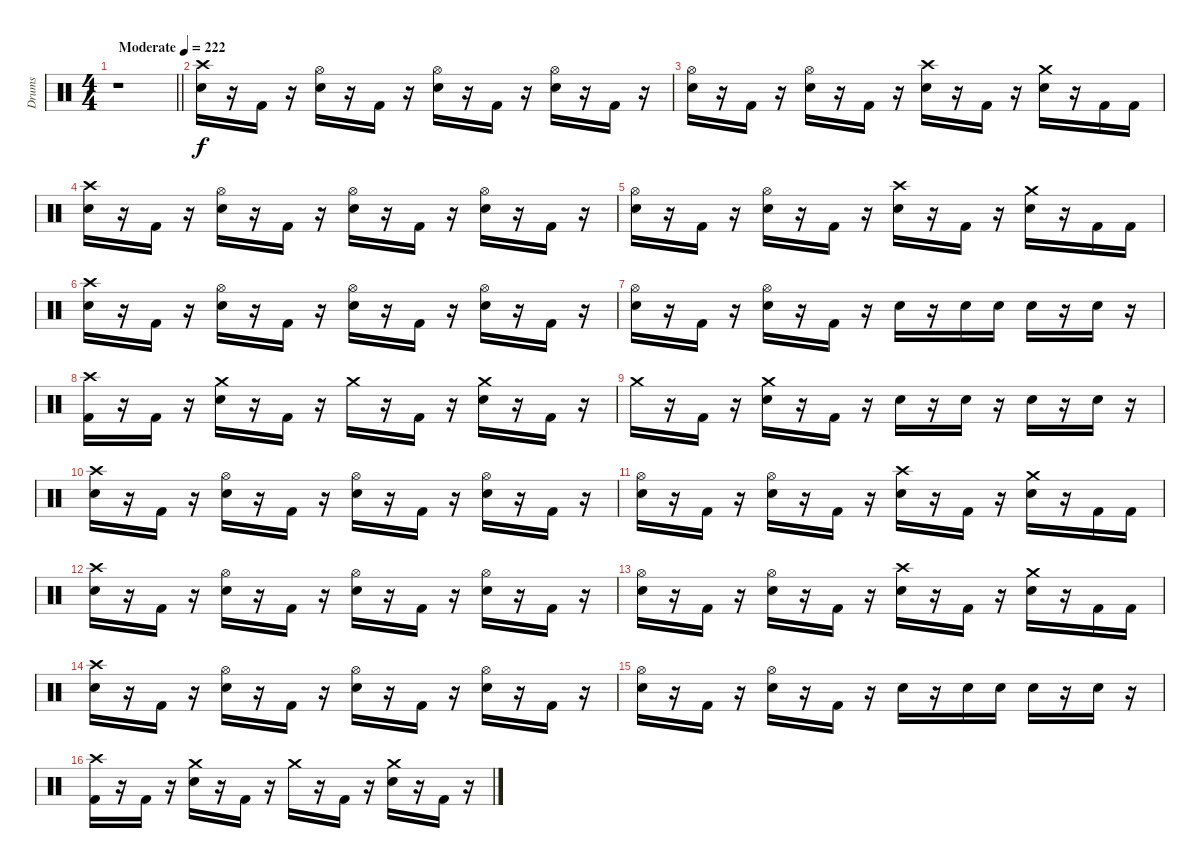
\track ("Drums" "Drums") {instrument percussion}
\staff {score}
\articulation defaults
\ts (4 4)
\tempo (222 "Moderate")
\clef neutral
\barLineRight lightlight
\ks c
r.1{dy f} |
\section ("" " ")
("Snare (hit) 2" "Crash high (hit)").16 r.16 "Kick (hit) 2".16 r.16 ("Snare (hit) 2" "Hi-Hat (open)").16 r.16 "Kick (hit) 2".16 r.16 ("Snare (hit) 2" "Hi-Hat (open)").16 r.16 "Kick (hit) 2".16 r.16 ("Snare (hit) 2" "Hi-Hat (open)").16 r.16 "Kick (hit) 2".16 r.16 |
("Snare (hit) 2" "Hi-Hat (open)").16 r.16 "Kick (hit) 2".16 r.16 ("Snare (hit) 2" "Hi-Hat (open)").16 r.16 "Kick (hit) 2".16 r.16 ("Snare (hit) 2" "Crash high (hit)").16 r.16 "Kick (hit) 2".16 r.16 ("Snare (hit) 2" "Crash medium (hit)").16 r.16 "Kick (hit) 2".16 "Kick (hit) 2".16 |
("Snare (hit) 2" "Crash high (hit)").16 r.16 "Kick (hit) 2".16 r.16 ("Snare (hit) 2" "Hi-Hat (open)").16 r.16 "Kick (hit) 2".16 r.16 ("Snare (hit) 2" "Hi-Hat (open)").16 r.16 "Kick (hit) 2".16 r.16 ("Snare (hit) 2" "Hi-Hat (open)").16 r.16 "Kick (hit) 2".16 r.16 |
("Snare (hit) 2" "Hi-Hat (open)").16 r.16 "Kick (hit) 2".16 r.16 ("Snare (hit) 2" "Hi-Hat (open)").16 r.16 "Kick (hit) 2".16 r.16 ("Snare (hit) 2" "Crash high (hit)").16 r.16 "Kick (hit) 2".16 r.16 ("Snare (hit) 2" "Crash medium (hit)").16 r.16 "Kick (hit) 2".16 "Kick (hit) 2".16 |
("Snare (hit) 2" "Crash high (hit)").16 r.16 "Kick (hit) 2".16 r.16 ("Snare (hit) 2" "Hi-Hat (open)").16 r.16 "Kick (hit) 2".16 r.16 ("Snare (hit) 2" "Hi-Hat (open)").16 r.16 "Kick (hit) 2".16 r.16 ("Snare (hit) 2" "Hi-Hat (open)").16 r.16 "Kick (hit) 2".16 r.16 |
("Snare (hit) 2" "Hi-Hat (open)").16 r.16 "Kick (hit) 2".16 r.16 ("Snare (hit) 2" "Hi-Hat (open)").16 r.16 "Kick (hit) 2".16 r.16 "Snare (hit) 2".16 r.16 "Snare (hit) 2".16 "Snare (hit) 2".16 "Snare (hit) 2".16 r.16 "Snare (hit) 2".16 r.16 |
("Kick (hit) 2" "Crash high (hit)").16 r.16 "Kick (hit) 2".16 r.16 ("Snare (hit) 2" "Crash medium (hit)").16 r.16 "Kick (hit) 2".16 r.16 "Crash medium (hit)".16 r.16 "Kick (hit) 2".16 r.16 ("Snare (hit) 2" "Crash medium (hit)").16 r.16 "Kick (hit) 2".16 r.16 |
"Crash medium (hit)".16 r.16 "Kick (hit) 2".16 r.16 ("Snare (hit) 2" "Crash medium (hit)").16 r.16 "Kick (hit) 2".16 r.16 "Snare (hit) 2".16 r.16 "Snare (hit) 2".16 r.16 "Snare (hit) 2".16 r.16 "Snare (hit) 2".16 r.16 |
("Snare (hit) 2" "Crash high (hit)").16 r.16 "Kick (hit) 2".16 r.16 ("Snare (hit) 2" "Hi-Hat (open)").16 r.16 "Kick (hit) 2".16 r.16 ("Snare (hit) 2" "Hi-Hat (open)").16 r.16 "Kick (hit) 2".16 r.16 ("Snare (hit) 2" "Hi-Hat (open)").16 r.16 "Kick (hit) 2".16 r.16 |
("Snare (hit) 2" "Hi-Hat (open)").16 r.16 "Kick (hit) 2".16 r.16 ("Snare (hit) 2" "Hi-Hat (open)").16 r.16 "Kick (hit) 2".16 r.16 ("Snare (hit) 2" "Crash high (hit)").16 r.16 "Kick (hit) 2".16 r.16 ("Snare (hit) 2" "Crash medium (hit)").16 r.16 "Kick (hit) 2".16 "Kick (hit) 2".16 |
("Snare (hit) 2" "Crash high (hit)").16 r.16 "Kick (hit) 2".16 r.16 ("Snare (hit) 2" "Hi-Hat (open)").16 r.16 "Kick (hit) 2".16 r.16 ("Snare (hit) 2" "Hi-Hat (open)").16 r.16 "Kick (hit) 2".16 r.16 ("Snare (hit) 2" "Hi-Hat (open)").16 r.16 "Kick (hit) 2".16 r.16 |
("Snare (hit) 2" "Hi-Hat (open)").16 r.16 "Kick (hit) 2".16 r.16 ("Snare (hit) 2" "Hi-Hat (open)").16 r.16 "Kick (hit) 2".16 r.16 ("Snare (hit) 2" "Crash high (hit)").16 r.16 "Kick (hit) 2".16 r.16 ("Snare (hit) 2" "Crash medium (hit)").16 r.16 "Kick (hit) 2".16 "Kick (hit) 2".16 |
("Snare (hit) 2" "Crash high (hit)").16 r.16 "Kick (hit) 2".16 r.16 ("Snare (hit) 2" "Hi-Hat (open)").16 r.16 "Kick (hit) 2".16 r.16 ("Snare (hit) 2" "Hi-Hat (open)").16 r.16 "Kick (hit) 2".16 r.16 ("Snare (hit) 2" "Hi-Hat (open)").16 r.16 "Kick (hit) 2".16 r.16 |
("Snare (hit) 2" "Hi-Hat (open)").16 r.16 "Kick (hit) 2".16 r.16 ("Snare (hit) 2" "Hi-Hat (open)").16 r.16 "Kick (hit) 2".16 r.16 "Snare (hit) 2".16 r.16 "Snare (hit) 2".16 "Snare (hit) 2".16 "Snare (hit) 2".16 r.16 "Snare (hit) 2".16 r.16 |
("Kick (hit) 2" "Crash high (hit)").16 r.16 "Kick (hit) 2".16 r.16 ("Snare (hit) 2" "Crash medium (hit)").16 r.16 "Kick (hit) 2".16 r.16 "Crash medium (hit)".16 r.16 "Kick (hit) 2".16 r.16 ("Snare (hit) 2" "Crash medium (hit)").16 r.16 "Kick (hit) 2".16 r.16
